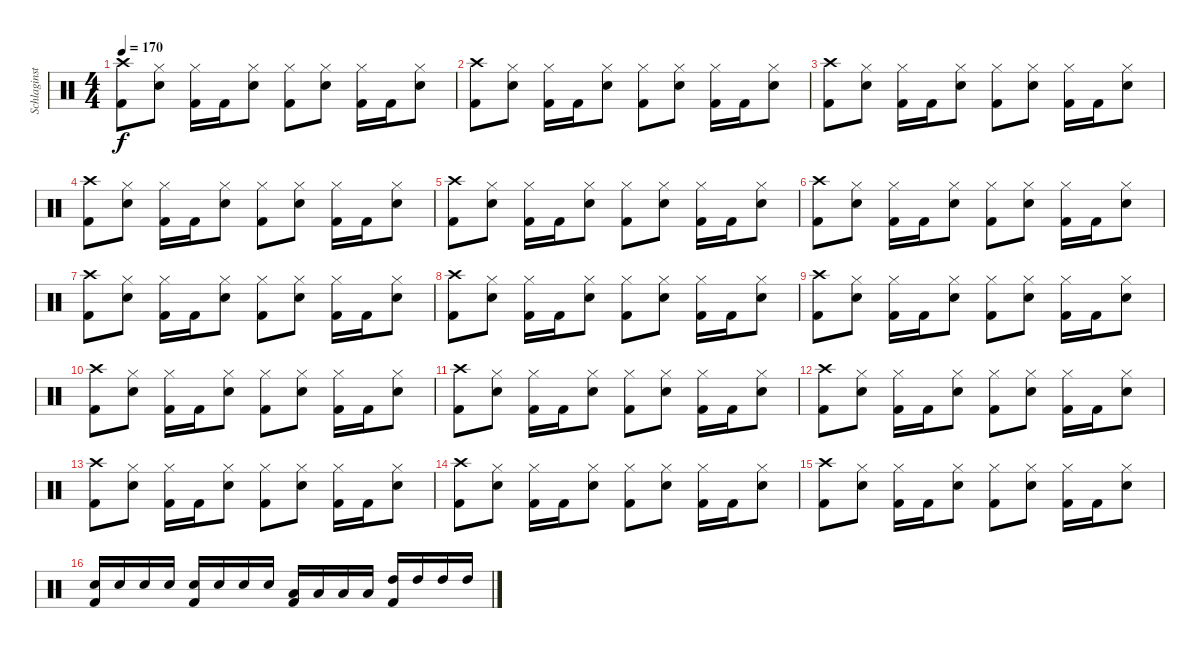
\track ("Schlaginstrumente - Auswahl" "Schlaginst") {instrument percussion}
\staff {score}
\articulation defaults
\ts (4 4)
\tempo 170
\clef neutral
\ks c
("Crash high (hit)" "Kick (hit) 2").8{dy f} ("Hi-Hat (closed)" "Snare (hit) 2").8 ("Hi-Hat (closed)" "Kick (hit) 2").16 "Kick (hit) 2".16 ("Hi-Hat (closed)" "Snare (hit) 2").8 ("Hi-Hat (closed)" "Kick (hit) 2").8 ("Hi-Hat (closed)" "Snare (hit) 2").8 ("Hi-Hat (closed)" "Kick (hit) 2").16 "Kick (hit) 2".16 ("Hi-Hat (closed)" "Snare (hit) 2").8 |
("Crash high (hit)" "Kick (hit) 2").8 ("Hi-Hat (closed)" "Snare (hit) 2").8 ("Hi-Hat (closed)" "Kick (hit) 2").16 "Kick (hit) 2".16 ("Hi-Hat (closed)" "Snare (hit) 2").8 ("Hi-Hat (closed)" "Kick (hit) 2").8 ("Hi-Hat (closed)" "Snare (hit) 2").8 ("Hi-Hat (closed)" "Kick (hit) 2").16 "Kick (hit) 2".16 ("Hi-Hat (closed)" "Snare (hit) 2").8 |
("Crash high (hit)" "Kick (hit) 2").8 ("Hi-Hat (closed)" "Snare (hit) 2").8 ("Hi-Hat (closed)" "Kick (hit) 2").16 "Kick (hit) 2".16 ("Hi-Hat (closed)" "Snare (hit) 2").8 ("Hi-Hat (closed)" "Kick (hit) 2").8 ("Hi-Hat (closed)" "Snare (hit) 2").8 ("Hi-Hat (closed)" "Kick (hit) 2").16 "Kick (hit) 2".16 ("Hi-Hat (closed)" "Snare (hit) 2").8 |
("Crash high (hit)" "Kick (hit) 2").8 ("Hi-Hat (closed)" "Snare (hit) 2").8 ("Hi-Hat (closed)" "Kick (hit) 2").16 "Kick (hit) 2".16 ("Hi-Hat (closed)" "Snare (hit) 2").8 ("Hi-Hat (closed)" "Kick (hit) 2").8 ("Hi-Hat (closed)" "Snare (hit) 2").8 ("Hi-Hat (closed)" "Kick (hit) 2").16 "Kick (hit) 2".16 ("Hi-Hat (closed)" "Snare (hit) 2").8 |
("Crash high (hit)" "Kick (hit) 2").8 ("Hi-Hat (closed)" "Snare (hit) 2").8 ("Hi-Hat (closed)" "Kick (hit) 2").16 "Kick (hit) 2".16 ("Hi-Hat (closed)" "Snare (hit) 2").8 ("Hi-Hat (closed)" "Kick (hit) 2").8 ("Hi-Hat (closed)" "Snare (hit) 2").8 ("Hi-Hat (closed)" "Kick (hit) 2").16 "Kick (hit) 2".16 ("Hi-Hat (closed)" "Snare (hit) 2").8 |
("Crash high (hit)" "Kick (hit) 2").8 ("Hi-Hat (closed)" "Snare (hit) 2").8 ("Hi-Hat (closed)" "Kick (hit) 2").16 "Kick (hit) 2".16 ("Hi-Hat (closed)" "Snare (hit) 2").8 ("Hi-Hat (closed)" "Kick (hit) 2").8 ("Hi-Hat (closed)" "Snare (hit) 2").8 ("Hi-Hat (closed)" "Kick (hit) 2").16 "Kick (hit) 2".16 ("Hi-Hat (closed)" "Snare (hit) 2").8 |
("Crash high (hit)" "Kick (hit) 2").8 ("Hi-Hat (closed)" "Snare (hit) 2").8 ("Hi-Hat (closed)" "Kick (hit) 2").16 "Kick (hit) 2".16 ("Hi-Hat (closed)" "Snare (hit) 2").8 ("Hi-Hat (closed)" "Kick (hit) 2").8 ("Hi-Hat (closed)" "Snare (hit) 2").8 ("Hi-Hat (closed)" "Kick (hit) 2").16 "Kick (hit) 2".16 ("Hi-Hat (closed)" "Snare (hit) 2").8 |
("Crash high (hit)" "Kick (hit) 2").8 ("Hi-Hat (closed)" "Snare (hit) 2").8 ("Hi-Hat (closed)" "Kick (hit) 2").16 "Kick (hit) 2".16 ("Hi-Hat (closed)" "Snare (hit) 2").8 ("Hi-Hat (closed)" "Kick (hit) 2").8 ("Hi-Hat (closed)" "Snare (hit) 2").8 ("Hi-Hat (closed)" "Kick (hit) 2").16 "Kick (hit) 2".16 ("Hi-Hat (closed)" "Snare (hit) 2").8 |
("Crash high (hit)" "Kick (hit) 2").8 ("Hi-Hat (closed)" "Snare (hit) 2").8 ("Hi-Hat (closed)" "Kick (hit) 2").16 "Kick (hit) 2".16 ("Hi-Hat (closed)" "Snare (hit) 2").8 ("Hi-Hat (closed)" "Kick (hit) 2").8 ("Hi-Hat (closed)" "Snare (hit) 2").8 ("Hi-Hat (closed)" "Kick (hit) 2").16 "Kick (hit) 2".16 ("Hi-Hat (closed)" "Snare (hit) 2").8 |
("Crash high (hit)" "Kick (hit) 2").8 ("Hi-Hat (closed)" "Snare (hit) 2").8 ("Hi-Hat (closed)" "Kick (hit) 2").16 "Kick (hit) 2".16 ("Hi-Hat (closed)" "Snare (hit) 2").8 ("Hi-Hat (closed)" "Kick (hit) 2").8 ("Hi-Hat (closed)" "Snare (hit) 2").8 ("Hi-Hat (closed)" "Kick (hit) 2").16 "Kick (hit) 2".16 ("Hi-Hat (closed)" "Snare (hit) 2").8 |
("Crash high (hit)" "Kick (hit) 2").8 ("Hi-Hat (closed)" "Snare (hit) 2").8 ("Hi-Hat (closed)" "Kick (hit) 2").16 "Kick (hit) 2".16 ("Hi-Hat (closed)" "Snare (hit) 2").8 ("Hi-Hat (closed)" "Kick (hit) 2").8 ("Hi-Hat (closed)" "Snare (hit) 2").8 ("Hi-Hat (closed)" "Kick (hit) 2").16 "Kick (hit) 2".16 ("Hi-Hat (closed)" "Snare (hit) 2").8 |
("Crash high (hit)" "Kick (hit) 2").8 ("Hi-Hat (closed)" "Snare (hit) 2").8 ("Hi-Hat (closed)" "Kick (hit) 2").16 "Kick (hit) 2".16 ("Hi-Hat (closed)" "Snare (hit) 2").8 ("Hi-Hat (closed)" "Kick (hit) 2").8 ("Hi-Hat (closed)" "Snare (hit) 2").8 ("Hi-Hat (closed)" "Kick (hit) 2").16 "Kick (hit) 2".16 ("Hi-Hat (closed)" "Snare (hit) 2").8 |
("Crash high (hit)" "Kick (hit) 2").8 ("Hi-Hat (closed)" "Snare (hit) 2").8 ("Hi-Hat (closed)" "Kick (hit) 2").16 "Kick (hit) 2".16 ("Hi-Hat (closed)" "Snare (hit) 2").8 ("Hi-Hat (closed)" "Kick (hit) 2").8 ("Hi-Hat (closed)" "Snare (hit) 2").8 ("Hi-Hat (closed)" "Kick (hit) 2").16 "Kick (hit) 2".16 ("Hi-Hat (closed)" "Snare (hit) 2").8 |
("Crash high (hit)" "Kick (hit) 2").8 ("Hi-Hat (closed)" "Snare (hit) 2").8 ("Hi-Hat (closed)" "Kick (hit) 2").16 "Kick (hit) 2".16 ("Hi-Hat (closed)" "Snare (hit) 2").8 ("Hi-Hat (closed)" "Kick (hit) 2").8 ("Hi-Hat (closed)" "Snare (hit) 2").8 ("Hi-Hat (closed)" "Kick (hit) 2").16 "Kick (hit) 2".16 ("Hi-Hat (closed)" "Snare (hit) 2").8 |
("Crash high (hit)" "Kick (hit) 2").8 ("Hi-Hat (closed)" "Snare (hit) 2").8 ("Hi-Hat (closed)" "Kick (hit) 2").16 "Kick (hit) 2".16 ("Hi-Hat (closed)" "Snare (hit) 2").8 ("Hi-Hat (closed)" "Kick (hit) 2").8 ("Hi-Hat (closed)" "Snare (hit) 2").8 ("Hi-Hat (closed)" "Kick (hit) 2").16 "Kick (hit) 2".16 ("Hi-Hat (closed)" "Snare (hit) 2").8 |
("Snare (hit) 2" "Kick (hit) 2").16 "Snare (hit) 2".16 "Snare (hit) 2".16 "Snare (hit) 2".16 ("Snare (hit) 2" "Kick (hit) 2").16 "Snare (hit) 2".16 "Snare (hit) 2".16 "Snare (hit) 2".16 ("Low Tom (hit)" "Kick (hit) 2").16 "Low Tom (hit)".16 "Low Tom (hit)".16 "Low Tom (hit)".16 ("High Tom (hit)" "Kick (hit) 2").16 "High Tom (hit)".16 "High Tom (hit)".16 "High Tom (hit)".16
